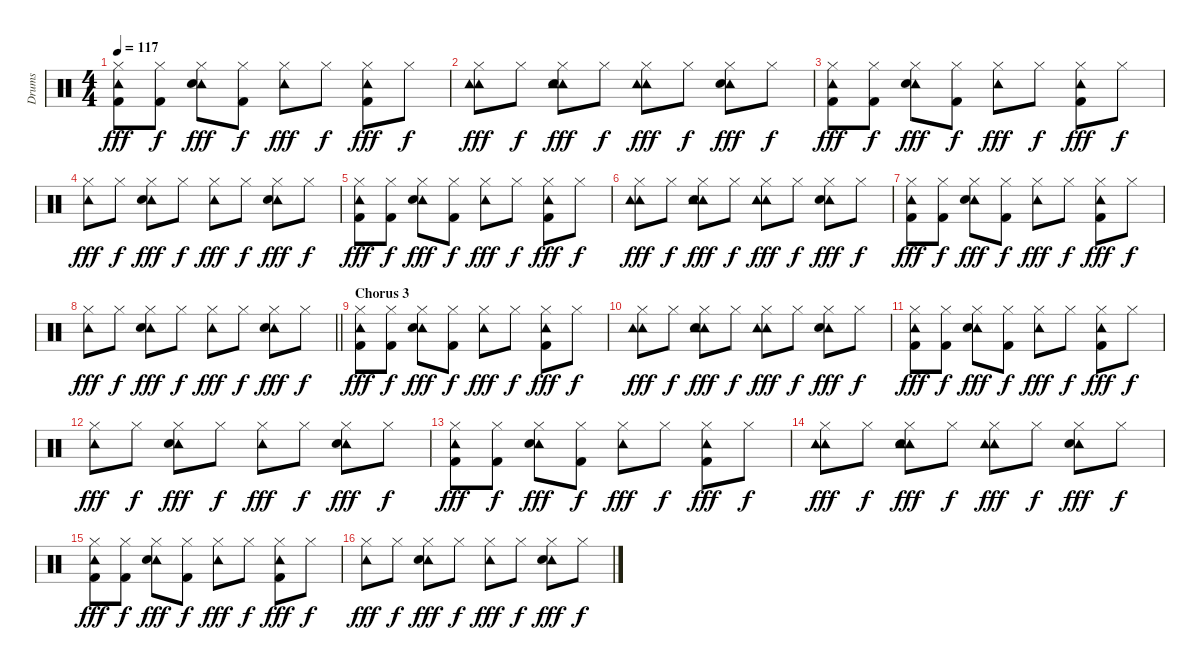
\track ("Drums" "Drums") {instrument percussion}
\staff {score}
\articulation defaults
\ts (4 4)
\tempo 117
\clef neutral
\ks c
("Tambourine (hit)" "Hi-Hat (closed)" "Kick (hit) 2").8{dy fff} ("Hi-Hat (closed)" "Kick (hit) 2").8{dy f} ("Tambourine (hit)" "Hi-Hat (closed)" "Snare (hit) 2").8{dy fff} ("Hi-Hat (closed)" "Kick (hit) 2").8{dy f} ("Tambourine (hit)" "Hi-Hat (closed)").8{dy fff} "Hi-Hat (closed)".8{dy f} ("Tambourine (hit)" "Hi-Hat (closed)" "Kick (hit) 2").8{dy fff} "Hi-Hat (closed)".8{dy f} |
("Tambourine (hit)" "Tambourine (hit)" "Hi-Hat (closed)").8{dy fff} "Hi-Hat (closed)".8{dy f} ("Tambourine (hit)" "Tambourine (hit)" "Hi-Hat (closed)" "Snare (hit) 2").8{dy fff} "Hi-Hat (closed)".8{dy f} ("Tambourine (hit)" "Tambourine (hit)" "Hi-Hat (closed)").8{dy fff} "Hi-Hat (closed)".8{dy f} ("Tambourine (hit)" "Hi-Hat (closed)" "Snare (hit) 2").8{dy fff} "Hi-Hat (closed)".8{dy f} |
("Tambourine (hit)" "Hi-Hat (closed)" "Kick (hit) 2").8{dy fff} ("Hi-Hat (closed)" "Kick (hit) 2").8{dy f} ("Tambourine (hit)" "Hi-Hat (closed)" "Snare (hit) 2").8{dy fff} ("Hi-Hat (closed)" "Kick (hit) 2").8{dy f} ("Tambourine (hit)" "Hi-Hat (closed)").8{dy fff} "Hi-Hat (closed)".8{dy f} ("Tambourine (hit)" "Hi-Hat (closed)" "Kick (hit) 2").8{dy fff} "Hi-Hat (closed)".8{dy f} |
("Tambourine (hit)" "Hi-Hat (closed)").8{dy fff} "Hi-Hat (closed)".8{dy f} ("Tambourine (hit)" "Hi-Hat (closed)" "Snare (hit) 2").8{dy fff} "Hi-Hat (closed)".8{dy f} ("Tambourine (hit)" "Hi-Hat (closed)").8{dy fff} "Hi-Hat (closed)".8{dy f} ("Tambourine (hit)" "Hi-Hat (closed)" "Snare (hit) 2").8{dy fff} "Hi-Hat (closed)".8{dy f} |
("Tambourine (hit)" "Hi-Hat (closed)" "Kick (hit) 2").8{dy fff} ("Hi-Hat (closed)" "Kick (hit) 2").8{dy f} ("Tambourine (hit)" "Hi-Hat (closed)" "Snare (hit) 2").8{dy fff} ("Hi-Hat (closed)" "Kick (hit) 2").8{dy f} ("Tambourine (hit)" "Hi-Hat (closed)").8{dy fff} "Hi-Hat (closed)".8{dy f} ("Tambourine (hit)" "Hi-Hat (closed)" "Kick (hit) 2").8{dy fff} "Hi-Hat (closed)".8{dy f} |
("Tambourine (hit)" "Tambourine (hit)" "Hi-Hat (closed)").8{dy fff} "Hi-Hat (closed)".8{dy f} ("Tambourine (hit)" "Tambourine (hit)" "Hi-Hat (closed)" "Snare (hit) 2").8{dy fff} "Hi-Hat (closed)".8{dy f} ("Tambourine (hit)" "Tambourine (hit)" "Hi-Hat (closed)").8{dy fff} "Hi-Hat (closed)".8{dy f} ("Tambourine (hit)" "Hi-Hat (closed)" "Snare (hit) 2").8{dy fff} "Hi-Hat (closed)".8{dy f} |
("Tambourine (hit)" "Hi-Hat (closed)" "Kick (hit) 2").8{dy fff} ("Hi-Hat (closed)" "Kick (hit) 2").8{dy f} ("Tambourine (hit)" "Hi-Hat (closed)" "Snare (hit) 2").8{dy fff} ("Hi-Hat (closed)" "Kick (hit) 2").8{dy f} ("Tambourine (hit)" "Hi-Hat (closed)").8{dy fff} "Hi-Hat (closed)".8{dy f} ("Tambourine (hit)" "Hi-Hat (closed)" "Kick (hit) 2").8{dy fff} "Hi-Hat (closed)".8{dy f} |
\barLineRight lightlight
("Tambourine (hit)" "Hi-Hat (closed)").8{dy fff} "Hi-Hat (closed)".8{dy f} ("Tambourine (hit)" "Hi-Hat (closed)" "Snare (hit) 2").8{dy fff} "Hi-Hat (closed)".8{dy f} ("Tambourine (hit)" "Hi-Hat (closed)").8{dy fff} "Hi-Hat (closed)".8{dy f} ("Tambourine (hit)" "Hi-Hat (closed)" "Snare (hit) 2").8{dy fff} "Hi-Hat (closed)".8{dy f} |
\section ("" "Chorus 3")
("Tambourine (hit)" "Hi-Hat (closed)" "Kick (hit) 2").8{dy fff} ("Hi-Hat (closed)" "Kick (hit) 2").8{dy f} ("Tambourine (hit)" "Hi-Hat (closed)" "Snare (hit) 2").8{dy fff} ("Hi-Hat (closed)" "Kick (hit) 2").8{dy f} ("Tambourine (hit)" "Hi-Hat (closed)").8{dy fff} "Hi-Hat (closed)".8{dy f} ("Tambourine (hit)" "Hi-Hat (closed)" "Kick (hit) 2").8{dy fff} "Hi-Hat (closed)".8{dy f} |
("Tambourine (hit)" "Tambourine (hit)" "Hi-Hat (closed)").8{dy fff} "Hi-Hat (closed)".8{dy f} ("Tambourine (hit)" "Tambourine (hit)" "Hi-Hat (closed)" "Snare (hit) 2").8{dy fff} "Hi-Hat (closed)".8{dy f} ("Tambourine (hit)" "Tambourine (hit)" "Hi-Hat (closed)").8{dy fff} "Hi-Hat (closed)".8{dy f} ("Tambourine (hit)" "Hi-Hat (closed)" "Snare (hit) 2").8{dy fff} "Hi-Hat (closed)".8{dy f} |
("Tambourine (hit)" "Hi-Hat (closed)" "Kick (hit) 2").8{dy fff} ("Hi-Hat (closed)" "Kick (hit) 2").8{dy f} ("Tambourine (hit)" "Hi-Hat (closed)" "Snare (hit) 2").8{dy fff} ("Hi-Hat (closed)" "Kick (hit) 2").8{dy f} ("Tambourine (hit)" "Hi-Hat (closed)").8{dy fff} "Hi-Hat (closed)".8{dy f} ("Tambourine (hit)" "Hi-Hat (closed)" "Kick (hit) 2").8{dy fff} "Hi-Hat (closed)".8{dy f} |
("Tambourine (hit)" "Hi-Hat (closed)").8{dy fff} "Hi-Hat (closed)".8{dy f} ("Tambourine (hit)" "Hi-Hat (closed)" "Snare (hit) 2").8{dy fff} "Hi-Hat (closed)".8{dy f} ("Tambourine (hit)" "Hi-Hat (closed)").8{dy fff} "Hi-Hat (closed)".8{dy f} ("Tambourine (hit)" "Hi-Hat (closed)" "Snare (hit) 2").8{dy fff} "Hi-Hat (closed)".8{dy f} |
("Tambourine (hit)" "Hi-Hat (closed)" "Kick (hit) 2").8{dy fff} ("Hi-Hat (closed)" "Kick (hit) 2").8{dy f} ("Tambourine (hit)" "Hi-Hat (closed)" "Snare (hit) 2").8{dy fff} ("Hi-Hat (closed)" "Kick (hit) 2").8{dy f} ("Tambourine (hit)" "Hi-Hat (closed)").8{dy fff} "Hi-Hat (closed)".8{dy f} ("Tambourine (hit)" "Hi-Hat (closed)" "Kick (hit) 2").8{dy fff} "Hi-Hat (closed)".8{dy f} |
("Tambourine (hit)" "Tambourine (hit)" "Hi-Hat (closed)").8{dy fff} "Hi-Hat (closed)".8{dy f} ("Tambourine (hit)" "Tambourine (hit)" "Hi-Hat (closed)" "Snare (hit) 2").8{dy fff} "Hi-Hat (closed)".8{dy f} ("Tambourine (hit)" "Tambourine (hit)" "Hi-Hat (closed)").8{dy fff} "Hi-Hat (closed)".8{dy f} ("Tambourine (hit)" "Hi-Hat (closed)" "Snare (hit) 2").8{dy fff} "Hi-Hat (closed)".8{dy f} |
("Tambourine (hit)" "Hi-Hat (closed)" "Kick (hit) 2").8{dy fff} ("Hi-Hat (closed)" "Kick (hit) 2").8{dy f} ("Tambourine (hit)" "Hi-Hat (closed)" "Snare (hit) 2").8{dy fff} ("Hi-Hat (closed)" "Kick (hit) 2").8{dy f} ("Tambourine (hit)" "Hi-Hat (closed)").8{dy fff} "Hi-Hat (closed)".8{dy f} ("Tambourine (hit)" "Hi-Hat (closed)" "Kick (hit) 2").8{dy fff} "Hi-Hat (closed)".8{dy f} |
("Tambourine (hit)" "Hi-Hat (closed)").8{dy fff} "Hi-Hat (closed)".8{dy f} ("Tambourine (hit)" "Hi-Hat (closed)" "Snare (hit) 2").8{dy fff} "Hi-Hat (closed)".8{dy f} ("Tambourine (hit)" "Hi-Hat (closed)").8{dy fff} "Hi-Hat (closed)".8{dy f} ("Tambourine (hit)" "Hi-Hat (closed)" "Snare (hit) 2").8{dy fff} "Hi-Hat (closed)".8{dy f}
